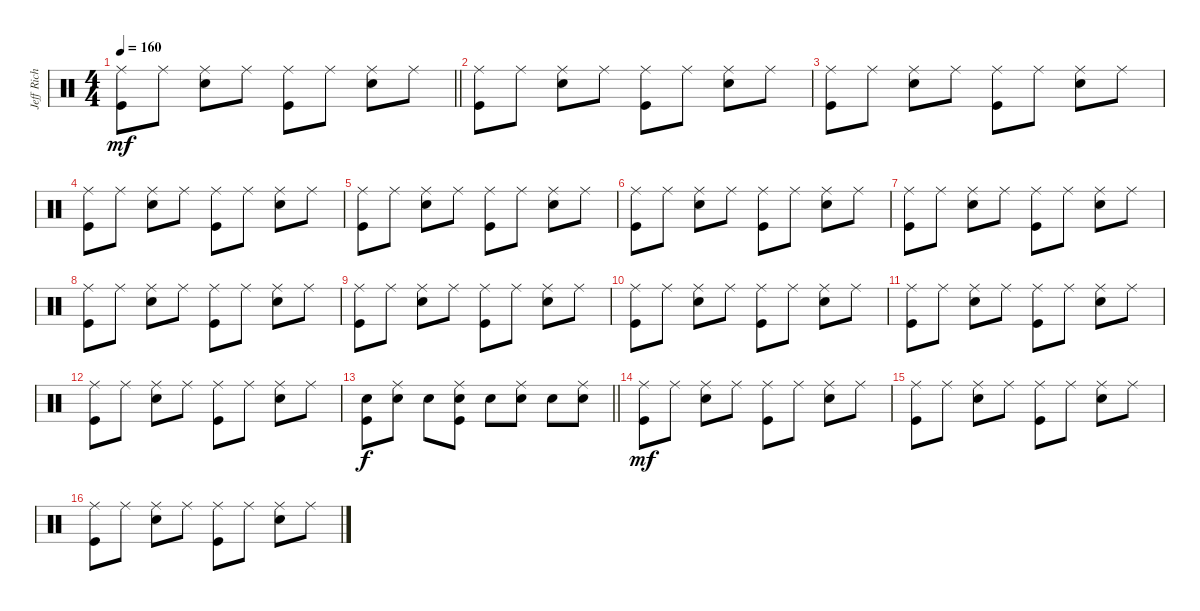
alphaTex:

\track ("Jeff Rich (Percussion)" "Jeff Rich ") {instrument percussion}
\staff {score}
\articulation defaults
\ts (4 4)
\tempo 160
\clef neutral
\barLineRight lightlight
\ks c
("Ride (middle)" "Kick (hit)").8{dy mf} "Ride (middle)".8 ("Ride (middle)" "Snare (hit) 2").8 "Ride (middle)".8 ("Ride (middle)" "Kick (hit)").8 "Ride (middle)".8 ("Ride (middle)" "Snare (hit) 2").8 "Ride (middle)".8 |
("Ride (middle)" "Kick (hit)").8 "Ride (middle)".8 ("Ride (middle)" "Snare (hit) 2").8 "Ride (middle)".8 ("Ride (middle)" "Kick (hit)").8 "Ride (middle)".8 ("Ride (middle)" "Snare (hit) 2").8 "Ride (middle)".8 |
("Ride (middle)" "Kick (hit)").8 "Ride (middle)".8 ("Ride (middle)" "Snare (hit) 2").8 "Ride (middle)".8 ("Ride (middle)" "Kick (hit)").8 "Ride (middle)".8 ("Ride (middle)" "Snare (hit) 2").8 "Ride (middle)".8 |
("Ride (middle)" "Kick (hit)").8 "Ride (middle)".8 ("Ride (middle)" "Snare (hit) 2").8 "Ride (middle)".8 ("Ride (middle)" "Kick (hit)").8 "Ride (middle)".8 ("Ride (middle)" "Snare (hit) 2").8 "Ride (middle)".8 |
("Ride (middle)" "Kick (hit)").8 "Ride (middle)".8 ("Ride (middle)" "Snare (hit) 2").8 "Ride (middle)".8 ("Ride (middle)" "Kick (hit)").8 "Ride (middle)".8 ("Ride (middle)" "Snare (hit) 2").8 "Ride (middle)".8 |
("Ride (middle)" "Kick (hit)").8 "Ride (middle)".8 ("Ride (middle)" "Snare (hit) 2").8 "Ride (middle)".8 ("Ride (middle)" "Kick (hit)").8 "Ride (middle)".8 ("Ride (middle)" "Snare (hit) 2").8 "Ride (middle)".8 |
("Ride (middle)" "Kick (hit)").8 "Ride (middle)".8 ("Ride (middle)" "Snare (hit) 2").8 "Ride (middle)".8 ("Ride (middle)" "Kick (hit)").8 "Ride (middle)".8 ("Ride (middle)" "Snare (hit) 2").8 "Ride (middle)".8 |
("Ride (middle)" "Kick (hit)").8 "Ride (middle)".8 ("Ride (middle)" "Snare (hit) 2").8 "Ride (middle)".8 ("Ride (middle)" "Kick (hit)").8 "Ride (middle)".8 ("Ride (middle)" "Snare (hit) 2").8 "Ride (middle)".8 |
("Ride (middle)" "Kick (hit)").8 "Ride (middle)".8 ("Ride (middle)" "Snare (hit) 2").8 "Ride (middle)".8 ("Ride (middle)" "Kick (hit)").8 "Ride (middle)".8 ("Ride (middle)" "Snare (hit) 2").8 "Ride (middle)".8 |
("Ride (middle)" "Kick (hit)").8 "Ride (middle)".8 ("Ride (middle)" "Snare (hit) 2").8 "Ride (middle)".8 ("Ride (middle)" "Kick (hit)").8 "Ride (middle)".8 ("Ride (middle)" "Snare (hit) 2").8 "Ride (middle)".8 |
("Ride (middle)" "Kick (hit)").8 "Ride (middle)".8 ("Ride (middle)" "Snare (hit) 2").8 "Ride (middle)".8 ("Ride (middle)" "Kick (hit)").8 "Ride (middle)".8 ("Ride (middle)" "Snare (hit) 2").8 "Ride (middle)".8 |
("Ride (middle)" "Kick (hit)").8 "Ride (middle)".8 ("Ride (middle)" "Snare (hit) 2").8 "Ride (middle)".8 ("Ride (middle)" "Kick (hit)").8 "Ride (middle)".8 ("Ride (middle)" "Snare (hit) 2").8 "Ride (middle)".8 |
\barLineRight lightlight
("Snare (hit) 2" "Kick (hit)").8{dy f} ("Ride (middle)" "Snare (hit) 2").8 "Snare (hit) 2".8 ("Ride (middle)" "Snare (hit) 2" "Kick (hit)").8 "Snare (hit) 2".8 ("Ride (middle)" "Snare (hit) 2").8 "Snare (hit) 2".8 ("Ride (middle)" "Snare (hit) 2").8 |
("Ride (middle)" "Kick (hit)").8{dy mf} "Ride (middle)".8 ("Ride (middle)" "Snare (hit) 2").8 "Ride (middle)".8 ("Ride (middle)" "Kick (hit)").8 "Ride (middle)".8 ("Ride (middle)" "Snare (hit) 2").8 "Ride (middle)".8 |
("Ride (middle)" "Kick (hit)").8 "Ride (middle)".8 ("Ride (middle)" "Snare (hit) 2").8 "Ride (middle)".8 ("Ride (middle)" "Kick (hit)").8 "Ride (middle)".8 ("Ride (middle)" "Snare (hit) 2").8 "Ride (middle)".8 |
("Ride (middle)" "Kick (hit)").8 "Ride (middle)".8 ("Ride (middle)" "Snare (hit) 2").8 "Ride (middle)".8 ("Ride (middle)" "Kick (hit)").8 "Ride (middle)".8 ("Ride (middle)" "Snare (hit) 2").8 "Ride (middle)".8
